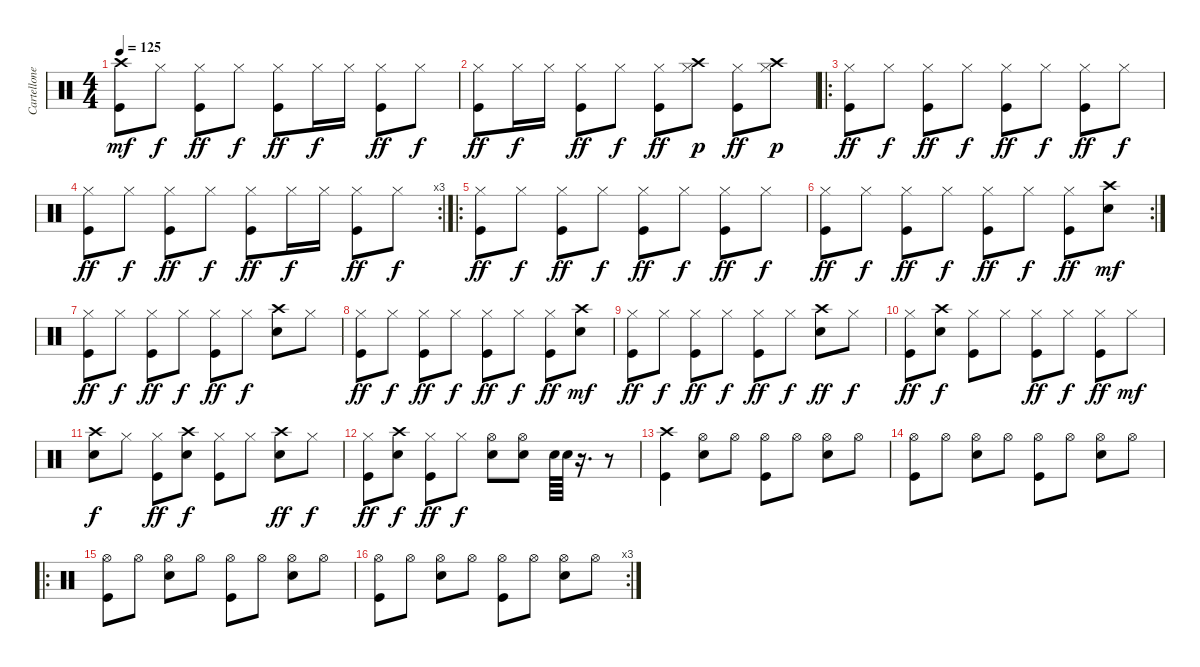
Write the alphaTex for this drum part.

\track ("Cartellone" "Cartellone") {instrument percussion}
\staff {score}
\articulation defaults
\ts (4 4)
\tempo 125
\clef neutral
\ks c
("Crash high (hit)" "Kick (hit)").8{dy mf} "Hi-Hat (closed)".8{dy f} ("Hi-Hat (closed)" "Kick (hit)").8{dy ff} "Hi-Hat (closed)".8{dy f} ("Hi-Hat (closed)" "Kick (hit)").8{dy ff} "Hi-Hat (closed)".16{dy f} "Hi-Hat (closed)".16 ("Hi-Hat (closed)" "Kick (hit)").8{dy ff} "Hi-Hat (closed)".8{dy f} |
("Hi-Hat (closed)" "Kick (hit)").8{dy ff} "Hi-Hat (closed)".16{dy f} "Hi-Hat (closed)".16 ("Hi-Hat (closed)" "Kick (hit)").8{dy ff} "Hi-Hat (closed)".8{dy f} ("Hi-Hat (closed)" "Kick (hit)").8{dy ff} ("Hi-Hat (closed)" "Crash high (hit)").8{dy p} ("Hi-Hat (closed)" "Kick (hit)").8{dy ff} ("Hi-Hat (closed)" "Crash high (hit)").8{dy p} |
\ro
("Hi-Hat (closed)" "Kick (hit)").8{dy ff} "Hi-Hat (closed)".8{dy f} ("Hi-Hat (closed)" "Kick (hit)").8{dy ff} "Hi-Hat (closed)".8{dy f} ("Hi-Hat (closed)" "Kick (hit)").8{dy ff} "Hi-Hat (closed)".8{dy f} ("Hi-Hat (closed)" "Kick (hit)").8{dy ff} "Hi-Hat (closed)".8{dy f} |
\rc 3
("Hi-Hat (closed)" "Kick (hit)").8{dy ff} "Hi-Hat (closed)".8{dy f} ("Hi-Hat (closed)" "Kick (hit)").8{dy ff} "Hi-Hat (closed)".8{dy f} ("Hi-Hat (closed)" "Kick (hit)").8{dy ff} "Hi-Hat (closed)".16{dy f} "Hi-Hat (closed)".16 ("Hi-Hat (closed)" "Kick (hit)").8{dy ff} "Hi-Hat (closed)".8{dy f} |
\ro
("Hi-Hat (closed)" "Kick (hit)").8{dy ff} "Hi-Hat (closed)".8{dy f} ("Hi-Hat (closed)" "Kick (hit)").8{dy ff} "Hi-Hat (closed)".8{dy f} ("Hi-Hat (closed)" "Kick (hit)").8{dy ff} "Hi-Hat (closed)".8{dy f} ("Hi-Hat (closed)" "Kick (hit)").8{dy ff} "Hi-Hat (closed)".8{dy f} |
\rc 2
("Hi-Hat (closed)" "Kick (hit)").8{dy ff} "Hi-Hat (closed)".8{dy f} ("Hi-Hat (closed)" "Kick (hit)").8{dy ff} "Hi-Hat (closed)".8{dy f} ("Hi-Hat (closed)" "Kick (hit)").8{dy ff} "Hi-Hat (closed)".8{dy f} ("Hi-Hat (closed)" "Kick (hit)").8{dy ff} ("Crash high (hit)" "Snare (hit) 2").8{dy mf} |
("Hi-Hat (closed)" "Kick (hit)").8{dy ff} "Hi-Hat (closed)".8{dy f} ("Hi-Hat (closed)" "Kick (hit)").8{dy ff} "Hi-Hat (closed)".8{dy f} ("Hi-Hat (closed)" "Kick (hit)").8{dy ff} "Hi-Hat (closed)".8{dy f} ("Crash high (hit)" "Snare (hit) 2").8 "Hi-Hat (closed)".8 |
("Hi-Hat (closed)" "Kick (hit)").8{dy ff} "Hi-Hat (closed)".8{dy f} ("Hi-Hat (closed)" "Kick (hit)").8{dy ff} "Hi-Hat (closed)".8{dy f} ("Hi-Hat (closed)" "Kick (hit)").8{dy ff} "Hi-Hat (closed)".8{dy f} ("Hi-Hat (closed)" "Kick (hit)").8{dy ff} ("Crash high (hit)" "Snare (hit) 2").8{dy mf} |
("Hi-Hat (closed)" "Kick (hit)").8{dy ff} "Hi-Hat (closed)".8{dy f} ("Hi-Hat (closed)" "Kick (hit)").8{dy ff} "Hi-Hat (closed)".8{dy f} ("Hi-Hat (closed)" "Kick (hit)").8{dy ff} "Hi-Hat (closed)".8{dy f} ("Crash high (hit)" "Snare (hit) 2").8{dy ff} "Hi-Hat (closed)".8{dy f} |
("Hi-Hat (closed)" "Kick (hit)").8{dy ff} ("Crash high (hit)" "Snare (hit) 2").8{dy f} ("Hi-Hat (closed)" "Kick (hit)").8 "Hi-Hat (closed)".8 ("Hi-Hat (closed)" "Kick (hit)").8{dy ff} "Hi-Hat (closed)".8{dy f} ("Hi-Hat (closed)" "Kick (hit)").8{dy ff} "Hi-Hat (closed)".8{dy mf} |
("Crash high (hit)" "Snare (hit) 2").8{dy f} "Hi-Hat (closed)".8 ("Hi-Hat (closed)" "Kick (hit)").8{dy ff} ("Crash high (hit)" "Snare (hit) 2").8{dy f} ("Hi-Hat (closed)" "Kick (hit)").8 "Hi-Hat (closed)".8 ("Crash high (hit)" "Snare (hit) 2").8{dy ff} "Hi-Hat (closed)".8{dy f} |
("Hi-Hat (closed)" "Kick (hit)").8{dy ff} ("Crash high (hit)" "Snare (hit) 2").8{dy f} ("Hi-Hat (closed)" "Kick (hit)").8{dy ff} "Hi-Hat (closed)".8{dy f} ("Hi-Hat (open)" "Snare (hit) 2").8 ("Hi-Hat (open)" "Snare (hit) 2").8 "Snare (hit) 2".64 "Snare (hit) 2".64 r.16{d} r.8 |
("Crash high (hit)" "Kick (hit)").4 ("Hi-Hat (open)" "Snare (hit) 2").8 "Hi-Hat (open)".8 ("Hi-Hat (open)" "Kick (hit)").8 "Hi-Hat (open)".8 ("Hi-Hat (open)" "Snare (hit) 2").8 "Hi-Hat (open)".8 |
("Hi-Hat (open)" "Kick (hit)").8 "Hi-Hat (open)".8 ("Hi-Hat (open)" "Snare (hit) 2").8 "Hi-Hat (open)".8 ("Hi-Hat (open)" "Kick (hit)").8 "Hi-Hat (open)".8 ("Hi-Hat (open)" "Snare (hit) 2").8 "Hi-Hat (open)".8 |
\ro
("Hi-Hat (open)" "Kick (hit)").8 "Hi-Hat (open)".8 ("Hi-Hat (open)" "Snare (hit) 2").8 "Hi-Hat (open)".8 ("Hi-Hat (open)" "Kick (hit)").8 "Hi-Hat (open)".8 ("Hi-Hat (open)" "Snare (hit) 2").8 "Hi-Hat (open)".8 |
\rc 3
("Hi-Hat (open)" "Kick (hit)").8 "Hi-Hat (open)".8 ("Hi-Hat (open)" "Snare (hit) 2").8 "Hi-Hat (open)".8 ("Hi-Hat (open)" "Kick (hit)").8 "Hi-Hat (open)".8 ("Hi-Hat (open)" "Snare (hit) 2").8 "Hi-Hat (open)".8
